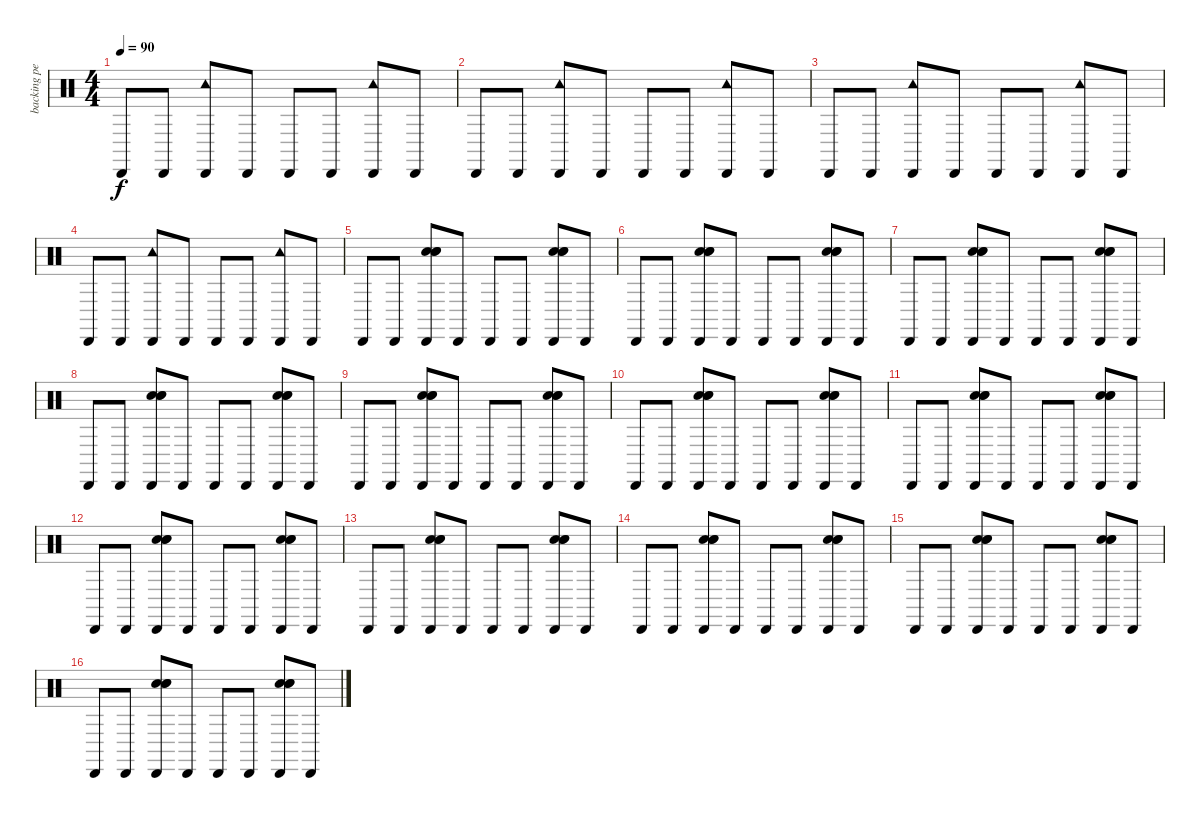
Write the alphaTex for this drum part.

\track ("backing percussion" "backing pe") {instrument percussion}
\staff {score}
\articulation defaults
\ts (4 4)
\tempo 90
\clef neutral
\ks c "Cabasa (hit)".8{dy f} "Cabasa (hit)".8
("Cabasa (hit)" "Tambourine (hit)").8 "Cabasa (hit)".8 "Cabasa (hit)".8 "Cabasa (hit)".8 ("Cabasa (hit)" "Tambourine (hit)").8 "Cabasa (hit)".8 |
"Cabasa (hit)".8 "Cabasa (hit)".8 ("Cabasa (hit)" "Tambourine (hit)").8 "Cabasa (hit)".8 "Cabasa (hit)".8 "Cabasa (hit)".8 ("Cabasa (hit)" "Tambourine (hit)").8 "Cabasa (hit)".8 |
"Cabasa (hit)".8 "Cabasa (hit)".8 ("Cabasa (hit)" "Tambourine (hit)").8 "Cabasa (hit)".8 "Cabasa (hit)".8 "Cabasa (hit)".8 ("Cabasa (hit)" "Tambourine (hit)").8 "Cabasa (hit)".8 |
"Cabasa (hit)".8 "Cabasa (hit)".8 ("Cabasa (hit)" "Tambourine (hit)").8 "Cabasa (hit)".8 "Cabasa (hit)".8 "Cabasa (hit)".8 ("Cabasa (hit)" "Tambourine (hit)").8 "Cabasa (hit)".8 |
"Cabasa (hit)".8 "Cabasa (hit)".8 ("Cabasa (hit)" "Hand Clap (hit)" "Hand Clap (hit)" "Hand Clap (hit)").8 "Cabasa (hit)".8 "Cabasa (hit)".8 "Cabasa (hit)".8 ("Cabasa (hit)" "Hand Clap (hit)" "Hand Clap (hit)" "Hand Clap (hit)").8 "Cabasa (hit)".8 |
"Cabasa (hit)".8 "Cabasa (hit)".8 ("Cabasa (hit)" "Hand Clap (hit)" "Hand Clap (hit)" "Hand Clap (hit)").8 "Cabasa (hit)".8 "Cabasa (hit)".8 "Cabasa (hit)".8 ("Cabasa (hit)" "Hand Clap (hit)" "Hand Clap (hit)" "Hand Clap (hit)").8 "Cabasa (hit)".8 |
"Cabasa (hit)".8 "Cabasa (hit)".8 ("Cabasa (hit)" "Hand Clap (hit)" "Hand Clap (hit)" "Hand Clap (hit)").8 "Cabasa (hit)".8 "Cabasa (hit)".8 "Cabasa (hit)".8 ("Cabasa (hit)" "Hand Clap (hit)" "Hand Clap (hit)" "Hand Clap (hit)").8 "Cabasa (hit)".8 |
"Cabasa (hit)".8 "Cabasa (hit)".8 ("Cabasa (hit)" "Hand Clap (hit)" "Hand Clap (hit)" "Hand Clap (hit)").8 "Cabasa (hit)".8 "Cabasa (hit)".8 "Cabasa (hit)".8 ("Cabasa (hit)" "Hand Clap (hit)" "Hand Clap (hit)" "Hand Clap (hit)").8 "Cabasa (hit)".8 |
"Cabasa (hit)".8 "Cabasa (hit)".8 ("Cabasa (hit)" "Hand Clap (hit)" "Hand Clap (hit)" "Hand Clap (hit)").8 "Cabasa (hit)".8 "Cabasa (hit)".8 "Cabasa (hit)".8 ("Cabasa (hit)" "Hand Clap (hit)" "Hand Clap (hit)" "Hand Clap (hit)").8 "Cabasa (hit)".8 |
"Cabasa (hit)".8 "Cabasa (hit)".8 ("Cabasa (hit)" "Hand Clap (hit)" "Hand Clap (hit)" "Hand Clap (hit)").8 "Cabasa (hit)".8 "Cabasa (hit)".8 "Cabasa (hit)".8 ("Cabasa (hit)" "Hand Clap (hit)" "Hand Clap (hit)" "Hand Clap (hit)").8 "Cabasa (hit)".8 |
"Cabasa (hit)".8 "Cabasa (hit)".8 ("Cabasa (hit)" "Hand Clap (hit)" "Hand Clap (hit)" "Hand Clap (hit)").8 "Cabasa (hit)".8 "Cabasa (hit)".8 "Cabasa (hit)".8 ("Cabasa (hit)" "Hand Clap (hit)" "Hand Clap (hit)" "Hand Clap (hit)").8 "Cabasa (hit)".8 |
"Cabasa (hit)".8 "Cabasa (hit)".8 ("Cabasa (hit)" "Hand Clap (hit)" "Hand Clap (hit)" "Hand Clap (hit)").8 "Cabasa (hit)".8 "Cabasa (hit)".8 "Cabasa (hit)".8 ("Cabasa (hit)" "Hand Clap (hit)" "Hand Clap (hit)" "Hand Clap (hit)").8 "Cabasa (hit)".8 |
"Cabasa (hit)".8 "Cabasa (hit)".8 ("Cabasa (hit)" "Hand Clap (hit)" "Hand Clap (hit)" "Hand Clap (hit)").8 "Cabasa (hit)".8 "Cabasa (hit)".8 "Cabasa (hit)".8 ("Cabasa (hit)" "Hand Clap (hit)" "Hand Clap (hit)" "Hand Clap (hit)").8 "Cabasa (hit)".8 |
"Cabasa (hit)".8 "Cabasa (hit)".8 ("Cabasa (hit)" "Hand Clap (hit)" "Hand Clap (hit)" "Hand Clap (hit)").8 "Cabasa (hit)".8 "Cabasa (hit)".8 "Cabasa (hit)".8 ("Cabasa (hit)" "Hand Clap (hit)" "Hand Clap (hit)" "Hand Clap (hit)").8 "Cabasa (hit)".8 |
"Cabasa (hit)".8 "Cabasa (hit)".8 ("Cabasa (hit)" "Hand Clap (hit)" "Hand Clap (hit)" "Hand Clap (hit)").8 "Cabasa (hit)".8 "Cabasa (hit)".8 "Cabasa (hit)".8 ("Cabasa (hit)" "Hand Clap (hit)" "Hand Clap (hit)" "Hand Clap (hit)").8 "Cabasa (hit)".8 |
"Cabasa (hit)".8 "Cabasa (hit)".8 ("Cabasa (hit)" "Hand Clap (hit)" "Hand Clap (hit)" "Hand Clap (hit)").8 "Cabasa (hit)".8 "Cabasa (hit)".8 "Cabasa (hit)".8 ("Cabasa (hit)" "Hand Clap (hit)" "Hand Clap (hit)" "Hand Clap (hit)").8 "Cabasa (hit)".8
